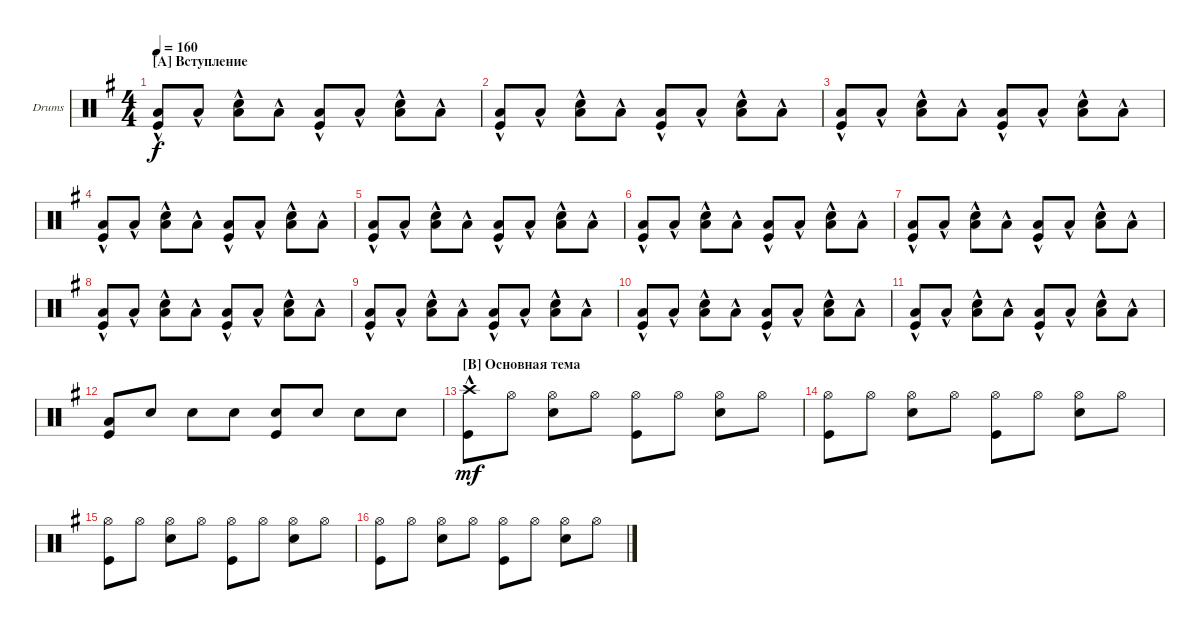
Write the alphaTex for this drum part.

\defaultSystemsLayout 4
\bracketExtendMode groupsimilarinstruments
\firstSystemTrackNameOrientation horizontal
\otherSystemsTrackNameOrientation horizontal
\track ("Drumkit" "Drums") {instrument percussion}
\staff {score}
\articulation defaults
\ts (4 4)
\section ("A" "Вступление")
\tempo 160
\clef neutral
\scale
0.323944
\ks eminor
("Kick (hit)" "Low Tom (hit)"{hac}).8{dy f} "Low Tom (hit)"{hac}.8 ("Snare (hit) 2" "Low Tom (hit)"{hac}).8 "Low Tom (hit)"{hac}.8 ("Kick (hit)" "Low Tom (hit)"{hac}).8 "Low Tom (hit)"{hac}.8 ("Snare (hit) 2" "Low Tom (hit)"{hac}).8 "Low Tom (hit)"{hac}.8 |
\scale
0.225352 ("Kick (hit)" "Low Tom (hit)"{hac}).8 "Low Tom (hit)"{hac}.8 ("Snare (hit) 2" "Low Tom (hit)"{hac}).8 "Low Tom (hit)"{hac}.8 ("Kick (hit)" "Low Tom (hit)"{hac}).8 "Low Tom (hit)"{hac}.8 ("Snare (hit) 2" "Low Tom (hit)"{hac}).8 "Low Tom (hit)"{hac}.8 |
\scale
0.225352 ("Kick (hit)" "Low Tom (hit)"{hac}).8 "Low Tom (hit)"{hac}.8 ("Snare (hit) 2" "Low Tom (hit)"{hac}).8 "Low Tom (hit)"{hac}.8 ("Kick (hit)" "Low Tom (hit)"{hac}).8 "Low Tom (hit)"{hac}.8 ("Snare (hit) 2" "Low Tom (hit)"{hac}).8 "Low Tom (hit)"{hac}.8 |
\scale
0.225352 ("Kick (hit)" "Low Tom (hit)"{hac}).8 "Low Tom (hit)"{hac}.8 ("Snare (hit) 2" "Low Tom (hit)"{hac}).8 "Low Tom (hit)"{hac}.8 ("Kick (hit)" "Low Tom (hit)"{hac}).8 "Low Tom (hit)"{hac}.8 ("Snare (hit) 2" "Low Tom (hit)"{hac}).8 "Low Tom (hit)"{hac}.8 |
\scale
0.25 ("Kick (hit)" "Low Tom (hit)"{hac}).8 "Low Tom (hit)"{hac}.8 ("Snare (hit) 2" "Low Tom (hit)"{hac}).8 "Low Tom (hit)"{hac}.8 ("Kick (hit)" "Low Tom (hit)"{hac}).8 "Low Tom (hit)"{hac}.8 ("Snare (hit) 2" "Low Tom (hit)"{hac}).8 "Low Tom (hit)"{hac}.8 |
\scale
0.25 ("Kick (hit)" "Low Tom (hit)"{hac}).8 "Low Tom (hit)"{hac}.8 ("Snare (hit) 2" "Low Tom (hit)"{hac}).8 "Low Tom (hit)"{hac}.8 ("Kick (hit)" "Low Tom (hit)"{hac}).8 "Low Tom (hit)"{hac}.8 ("Snare (hit) 2" "Low Tom (hit)"{hac}).8 "Low Tom (hit)"{hac}.8 |
\scale
0.25 ("Kick (hit)" "Low Tom (hit)"{hac}).8 "Low Tom (hit)"{hac}.8 ("Snare (hit) 2" "Low Tom (hit)"{hac}).8 "Low Tom (hit)"{hac}.8 ("Kick (hit)" "Low Tom (hit)"{hac}).8 "Low Tom (hit)"{hac}.8 ("Snare (hit) 2" "Low Tom (hit)"{hac}).8 "Low Tom (hit)"{hac}.8 |
\scale
0.25 ("Kick (hit)" "Low Tom (hit)"{hac}).8 "Low Tom (hit)"{hac}.8 ("Snare (hit) 2" "Low Tom (hit)"{hac}).8 "Low Tom (hit)"{hac}.8 ("Kick (hit)" "Low Tom (hit)"{hac}).8 "Low Tom (hit)"{hac}.8 ("Snare (hit) 2" "Low Tom (hit)"{hac}).8 "Low Tom (hit)"{hac}.8 |
\scale
0.25 ("Kick (hit)" "Low Tom (hit)"{hac}).8 "Low Tom (hit)"{hac}.8 ("Snare (hit) 2" "Low Tom (hit)"{hac}).8 "Low Tom (hit)"{hac}.8 ("Kick (hit)" "Low Tom (hit)"{hac}).8 "Low Tom (hit)"{hac}.8 ("Snare (hit) 2" "Low Tom (hit)"{hac}).8 "Low Tom (hit)"{hac}.8 |
\scale
0.25 ("Kick (hit)" "Low Tom (hit)"{hac}).8 "Low Tom (hit)"{hac}.8 ("Snare (hit) 2" "Low Tom (hit)"{hac}).8 "Low Tom (hit)"{hac}.8 ("Kick (hit)" "Low Tom (hit)"{hac}).8 "Low Tom (hit)"{hac}.8 ("Snare (hit) 2" "Low Tom (hit)"{hac}).8 "Low Tom (hit)"{hac}.8 |
\scale
0.25 ("Kick (hit)" "Low Tom (hit)"{hac}).8 "Low Tom (hit)"{hac}.8 ("Snare (hit) 2" "Low Tom (hit)"{hac}).8 "Low Tom (hit)"{hac}.8 ("Kick (hit)" "Low Tom (hit)"{hac}).8 "Low Tom (hit)"{hac}.8 ("Snare (hit) 2" "Low Tom (hit)"{hac}).8 "Low Tom (hit)"{hac}.8 |
\scale
0.25 ("Kick (hit)" "Low Tom (hit)").8 "Snare (hit) 2".8 "Snare (hit) 2".8 "Snare (hit) 2".8 ("Kick (hit)" "Snare (hit) 2").8 "Snare (hit) 2".8 "Snare (hit) 2".8 "Snare (hit) 2".8 |
\section ("B" "Основная тема")
\scale
0.25 ("Kick (hit)" "Crash high (hit)"{hac}).8{dy mf} "Hi-Hat (open)".8 ("Hi-Hat (open)" "Snare (hit) 2").8 "Hi-Hat (open)".8 ("Hi-Hat (open)" "Kick (hit)").8 "Hi-Hat (open)".8 ("Hi-Hat (open)" "Snare (hit) 2").8 "Hi-Hat (open)".8 |
\scale
0.25 ("Hi-Hat (open)" "Kick (hit)").8 "Hi-Hat (open)".8 ("Hi-Hat (open)" "Snare (hit) 2").8 "Hi-Hat (open)".8 ("Hi-Hat (open)" "Kick (hit)").8 "Hi-Hat (open)".8 ("Hi-Hat (open)" "Snare (hit) 2").8 "Hi-Hat (open)".8 |
\scale
0.25 ("Hi-Hat (open)" "Kick (hit)").8 "Hi-Hat (open)".8 ("Hi-Hat (open)" "Snare (hit) 2").8 "Hi-Hat (open)".8 ("Hi-Hat (open)" "Kick (hit)").8 "Hi-Hat (open)".8 ("Hi-Hat (open)" "Snare (hit) 2").8 "Hi-Hat (open)".8 |
\scale
0.25 ("Hi-Hat (open)" "Kick (hit)").8 "Hi-Hat (open)".8 ("Hi-Hat (open)" "Snare (hit) 2").8 "Hi-Hat (open)".8 ("Hi-Hat (open)" "Kick (hit)").8 "Hi-Hat (open)".8 ("Hi-Hat (open)" "Snare (hit) 2").8 "Hi-Hat (open)".8
